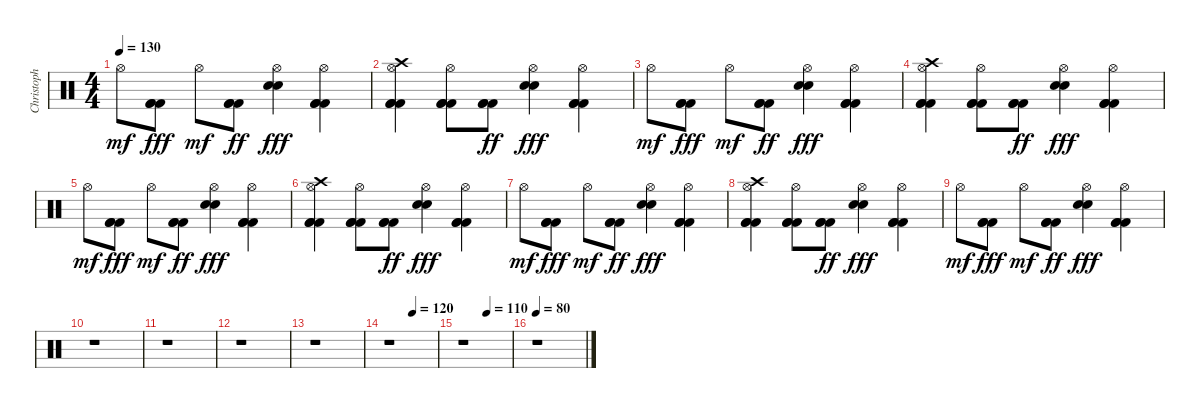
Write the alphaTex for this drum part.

\track ("Christoph Schneider" "Christoph ") {instrument percussion}
\staff {score}
\articulation defaults
\ts (4 4)
\tempo 130
\clef neutral
\ks c "Hi-Hat (open)".8{dy mf}
("Kick (hit) 2" "Kick (hit) 2" "Kick (hit) 2").8{dy fff} "Hi-Hat (open)".8{dy mf} ("Kick (hit) 2" "Kick (hit) 2" "Kick (hit) 2").8{dy ff} ("Hi-Hat (open)" "Snare (hit) 2" "Snare (hit) 2").4{dy fff} ("Hi-Hat (open)" "Kick (hit) 2" "Kick (hit) 2" "Kick (hit) 2").4 |
("Crash high (hit)" "Hi-Hat (open)" "Kick (hit) 2" "Kick (hit) 2" "Kick (hit) 2").4 ("Hi-Hat (open)" "Kick (hit) 2" "Kick (hit) 2" "Kick (hit) 2").8 ("Kick (hit) 2" "Kick (hit) 2" "Kick (hit) 2").8{dy ff} ("Hi-Hat (open)" "Snare (hit) 2" "Snare (hit) 2").4{dy fff} ("Hi-Hat (open)" "Kick (hit) 2" "Kick (hit) 2" "Kick (hit) 2").4 |
"Hi-Hat (open)".8{dy mf} ("Kick (hit) 2" "Kick (hit) 2" "Kick (hit) 2").8{dy fff} "Hi-Hat (open)".8{dy mf} ("Kick (hit) 2" "Kick (hit) 2" "Kick (hit) 2").8{dy ff} ("Hi-Hat (open)" "Snare (hit) 2" "Snare (hit) 2").4{dy fff} ("Hi-Hat (open)" "Kick (hit) 2" "Kick (hit) 2" "Kick (hit) 2").4 |
("Crash high (hit)" "Hi-Hat (open)" "Kick (hit) 2" "Kick (hit) 2" "Kick (hit) 2").4 ("Hi-Hat (open)" "Kick (hit) 2" "Kick (hit) 2" "Kick (hit) 2").8 ("Kick (hit) 2" "Kick (hit) 2" "Kick (hit) 2").8{dy ff} ("Hi-Hat (open)" "Snare (hit) 2" "Snare (hit) 2").4{dy fff} ("Hi-Hat (open)" "Kick (hit) 2" "Kick (hit) 2" "Kick (hit) 2").4 |
"Hi-Hat (open)".8{dy mf} ("Kick (hit) 2" "Kick (hit) 2" "Kick (hit) 2").8{dy fff} "Hi-Hat (open)".8{dy mf} ("Kick (hit) 2" "Kick (hit) 2" "Kick (hit) 2").8{dy ff} ("Hi-Hat (open)" "Snare (hit) 2" "Snare (hit) 2").4{dy fff} ("Hi-Hat (open)" "Kick (hit) 2" "Kick (hit) 2" "Kick (hit) 2").4 |
("Crash high (hit)" "Hi-Hat (open)" "Kick (hit) 2" "Kick (hit) 2" "Kick (hit) 2").4 ("Hi-Hat (open)" "Kick (hit) 2" "Kick (hit) 2" "Kick (hit) 2").8 ("Kick (hit) 2" "Kick (hit) 2" "Kick (hit) 2").8{dy ff} ("Hi-Hat (open)" "Snare (hit) 2" "Snare (hit) 2").4{dy fff} ("Hi-Hat (open)" "Kick (hit) 2" "Kick (hit) 2" "Kick (hit) 2").4 |
"Hi-Hat (open)".8{dy mf} ("Kick (hit) 2" "Kick (hit) 2" "Kick (hit) 2").8{dy fff} "Hi-Hat (open)".8{dy mf} ("Kick (hit) 2" "Kick (hit) 2" "Kick (hit) 2").8{dy ff} ("Hi-Hat (open)" "Snare (hit) 2" "Snare (hit) 2").4{dy fff} ("Hi-Hat (open)" "Kick (hit) 2" "Kick (hit) 2" "Kick (hit) 2").4 |
("Crash high (hit)" "Hi-Hat (open)" "Kick (hit) 2" "Kick (hit) 2" "Kick (hit) 2").4 ("Hi-Hat (open)" "Kick (hit) 2" "Kick (hit) 2" "Kick (hit) 2").8 ("Kick (hit) 2" "Kick (hit) 2" "Kick (hit) 2").8{dy ff} ("Hi-Hat (open)" "Snare (hit) 2" "Snare (hit) 2").4{dy fff} ("Hi-Hat (open)" "Kick (hit) 2" "Kick (hit) 2" "Kick (hit) 2").4 |
"Hi-Hat (open)".8{dy mf} ("Kick (hit) 2" "Kick (hit) 2" "Kick (hit) 2").8{dy fff} "Hi-Hat (open)".8{dy mf} ("Kick (hit) 2" "Kick (hit) 2" "Kick (hit) 2").8{dy ff} ("Hi-Hat (open)" "Snare (hit) 2" "Snare (hit) 2").4{dy fff} ("Hi-Hat (open)" "Kick (hit) 2" "Kick (hit) 2" "Kick (hit) 2").4 |
r.1 |
r.1 |
r.1 |
r.1 |
\tempo (120 0.5)
r.1 |
\tempo (110 0.5)
r.1 |
\tempo 80
r.1
